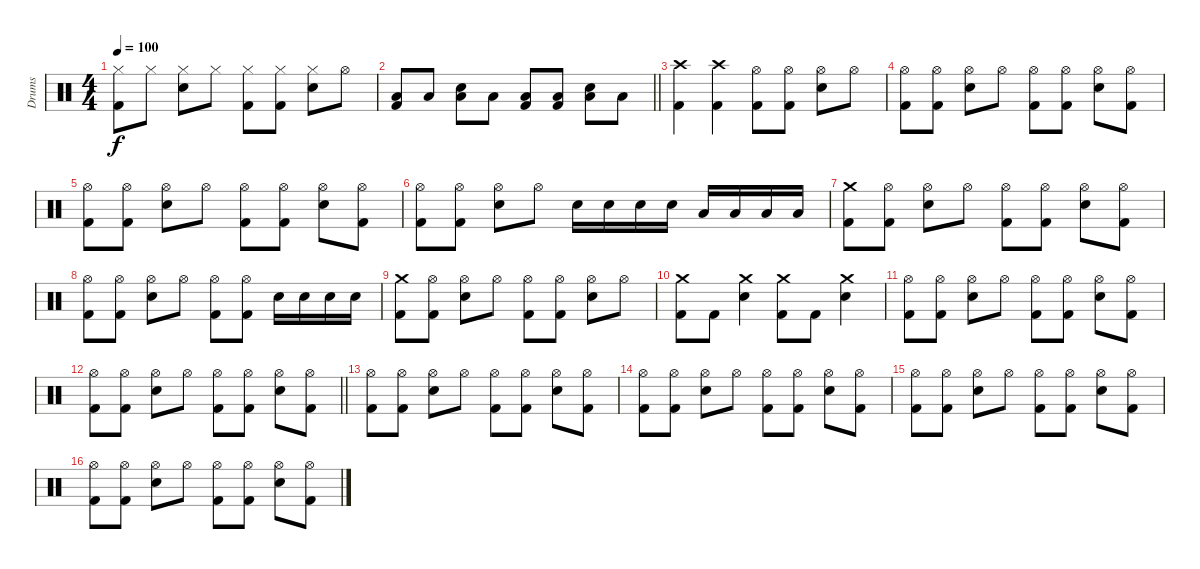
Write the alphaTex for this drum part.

\track ("Drums" "Drums") {instrument percussion}
\staff {score}
\articulation defaults
\ts (4 4)
\tempo 100
\clef neutral
\ks c
("Hi-Hat (closed)" "Kick (hit) 2").8{dy f} "Hi-Hat (closed)".8 ("Hi-Hat (closed)" "Snare (hit) 2").8 "Hi-Hat (closed)".8 ("Hi-Hat (closed)" "Kick (hit) 2").8 ("Hi-Hat (closed)" "Kick (hit) 2").8 ("Hi-Hat (closed)" "Snare (hit) 2").8 "Hi-Hat (open)".8 |
\barLineRight lightlight
("Low Tom (hit)" "Kick (hit) 2").8 "Low Tom (hit)".8 ("Snare (hit) 2" "Low Tom (hit)").8 "Low Tom (hit)".8 ("Low Tom (hit)" "Kick (hit) 2").8 ("Low Tom (hit)" "Kick (hit) 2").8 ("Snare (hit) 2" "Low Tom (hit)").8 "Low Tom (hit)".8 |
\section ("" "")
("Crash high (hit)" "Kick (hit) 2").4 ("Crash high (hit)" "Kick (hit) 2").4 ("Hi-Hat (open)" "Kick (hit) 2").8 ("Hi-Hat (open)" "Kick (hit) 2").8 ("Hi-Hat (open)" "Snare (hit) 2").8 "Hi-Hat (open)".8 |
("Hi-Hat (open)" "Kick (hit) 2").8 ("Hi-Hat (open)" "Kick (hit) 2").8 ("Hi-Hat (open)" "Snare (hit) 2").8 "Hi-Hat (open)".8 ("Hi-Hat (open)" "Kick (hit) 2").8 ("Hi-Hat (open)" "Kick (hit) 2").8 ("Hi-Hat (open)" "Snare (hit) 2").8 ("Hi-Hat (open)" "Kick (hit) 2").8 |
("Hi-Hat (open)" "Kick (hit) 2").8 ("Hi-Hat (open)" "Kick (hit) 2").8 ("Hi-Hat (open)" "Snare (hit) 2").8 "Hi-Hat (open)".8 ("Hi-Hat (open)" "Kick (hit) 2").8 ("Hi-Hat (open)" "Kick (hit) 2").8 ("Hi-Hat (open)" "Snare (hit) 2").8 ("Hi-Hat (open)" "Kick (hit) 2").8 |
("Hi-Hat (open)" "Kick (hit) 2").8 ("Hi-Hat (open)" "Kick (hit) 2").8 ("Hi-Hat (open)" "Snare (hit) 2").8 "Hi-Hat (open)".8 "Snare (hit) 2".16 "Snare (hit) 2".16 "Snare (hit) 2".16 "Snare (hit) 2".16 "Low Tom (hit)".16 "Low Tom (hit)".16 "Low Tom (hit)".16 "Low Tom (hit)".16 |
("Crash medium (hit)" "Kick (hit) 2").8 ("Hi-Hat (open)" "Kick (hit) 2").8 ("Hi-Hat (open)" "Snare (hit) 2").8 "Hi-Hat (open)".8 ("Hi-Hat (open)" "Kick (hit) 2").8 ("Hi-Hat (open)" "Kick (hit) 2").8 ("Hi-Hat (open)" "Snare (hit) 2").8 ("Hi-Hat (open)" "Kick (hit) 2").8 |
("Hi-Hat (open)" "Kick (hit) 2").8 ("Hi-Hat (open)" "Kick (hit) 2").8 ("Hi-Hat (open)" "Snare (hit) 2").8 "Hi-Hat (open)".8 ("Hi-Hat (open)" "Kick (hit) 2").8 ("Hi-Hat (open)" "Kick (hit) 2").8 "Snare (hit) 2".16 "Snare (hit) 2".16 "Snare (hit) 2".16 "Snare (hit) 2".16 |
("Crash medium (hit)" "Kick (hit) 2").8 ("Hi-Hat (open)" "Kick (hit) 2").8 ("Hi-Hat (open)" "Snare (hit) 2").8 "Hi-Hat (open)".8 ("Hi-Hat (open)" "Kick (hit) 2").8 ("Hi-Hat (open)" "Kick (hit) 2").8 ("Hi-Hat (open)" "Snare (hit) 2").8 "Hi-Hat (open)".8 |
("Crash medium (hit)" "Kick (hit) 2").8 "Kick (hit) 2".8 ("Crash medium (hit)" "Snare (hit) 2").4 ("Crash medium (hit)" "Kick (hit) 2").8 "Kick (hit) 2".8 ("Crash medium (hit)" "Snare (hit) 2").4 |
("Hi-Hat (open)" "Kick (hit) 2").8 ("Hi-Hat (open)" "Kick (hit) 2").8 ("Hi-Hat (open)" "Snare (hit) 2").8 "Hi-Hat (open)".8 ("Hi-Hat (open)" "Kick (hit) 2").8 ("Hi-Hat (open)" "Kick (hit) 2").8 ("Hi-Hat (open)" "Snare (hit) 2").8 ("Hi-Hat (open)" "Kick (hit) 2").8 |
\barLineRight lightlight
("Hi-Hat (open)" "Kick (hit) 2").8 ("Hi-Hat (open)" "Kick (hit) 2").8 ("Hi-Hat (open)" "Snare (hit) 2").8 "Hi-Hat (open)".8 ("Hi-Hat (open)" "Kick (hit) 2").8 ("Hi-Hat (open)" "Kick (hit) 2").8 ("Hi-Hat (open)" "Snare (hit) 2").8 ("Hi-Hat (open)" "Kick (hit) 2").8 |
\section ("" "")
("Hi-Hat (open)" "Kick (hit) 2").8 ("Hi-Hat (open)" "Kick (hit) 2").8 ("Hi-Hat (open)" "Snare (hit) 2").8 "Hi-Hat (open)".8 ("Hi-Hat (open)" "Kick (hit) 2").8 ("Hi-Hat (open)" "Kick (hit) 2").8 ("Hi-Hat (open)" "Snare (hit) 2").8 ("Hi-Hat (open)" "Kick (hit) 2").8 |
("Hi-Hat (open)" "Kick (hit) 2").8 ("Hi-Hat (open)" "Kick (hit) 2").8 ("Hi-Hat (open)" "Snare (hit) 2").8 "Hi-Hat (open)".8 ("Hi-Hat (open)" "Kick (hit) 2").8 ("Hi-Hat (open)" "Kick (hit) 2").8 ("Hi-Hat (open)" "Snare (hit) 2").8 ("Hi-Hat (open)" "Kick (hit) 2").8 |
("Hi-Hat (open)" "Kick (hit) 2").8 ("Hi-Hat (open)" "Kick (hit) 2").8 ("Hi-Hat (open)" "Snare (hit) 2").8 "Hi-Hat (open)".8 ("Hi-Hat (open)" "Kick (hit) 2").8 ("Hi-Hat (open)" "Kick (hit) 2").8 ("Hi-Hat (open)" "Snare (hit) 2").8 ("Hi-Hat (open)" "Kick (hit) 2").8 |
("Hi-Hat (open)" "Kick (hit) 2").8 ("Hi-Hat (open)" "Kick (hit) 2").8 ("Hi-Hat (open)" "Snare (hit) 2").8 "Hi-Hat (open)".8 ("Hi-Hat (open)" "Kick (hit) 2").8 ("Hi-Hat (open)" "Kick (hit) 2").8 ("Hi-Hat (open)" "Snare (hit) 2").8 ("Hi-Hat (open)" "Kick (hit) 2").8
